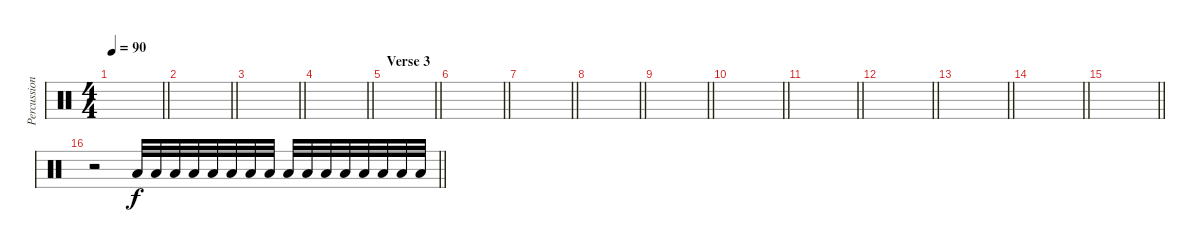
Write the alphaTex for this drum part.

\track ("Percussion" "Percussion") {mute instrument percussion}
\staff {score}
\articulation defaults
\ts (4 4)
\tempo 90
\clef neutral
\barLineRight lightlight
\ks c
|
\barLineRight lightlight
|
\barLineRight lightlight
|
\barLineRight lightlight
|
\section ("" "Verse 3")
\barLineRight lightlight
|
\barLineRight lightlight
|
\barLineRight lightlight
|
\barLineRight lightlight
|
\barLineRight lightlight
|
\barLineRight lightlight
|
\barLineRight lightlight
|
\barLineRight lightlight
|
\barLineRight lightlight
|
\barLineRight lightlight
|
\barLineRight lightlight
|
\barLineRight lightlight
r.2 "Low Floor Tom (hit)".32 "Low Floor Tom (hit)".32 "Low Floor Tom (hit)".32 "Low Floor Tom (hit)".32 "Low Floor Tom (hit)".32 "Low Floor Tom (hit)".32 "Low Floor Tom (hit)".32 "Low Floor Tom (hit)".32 "Low Floor Tom (hit)".32 "Low Floor Tom (hit)".32 "Low Floor Tom (hit)".32 "Low Floor Tom (hit)".32 "Low Floor Tom (hit)".32 "Low Floor Tom (hit)".32 "Low Floor Tom (hit)".32 "Low Floor Tom (hit)".32
